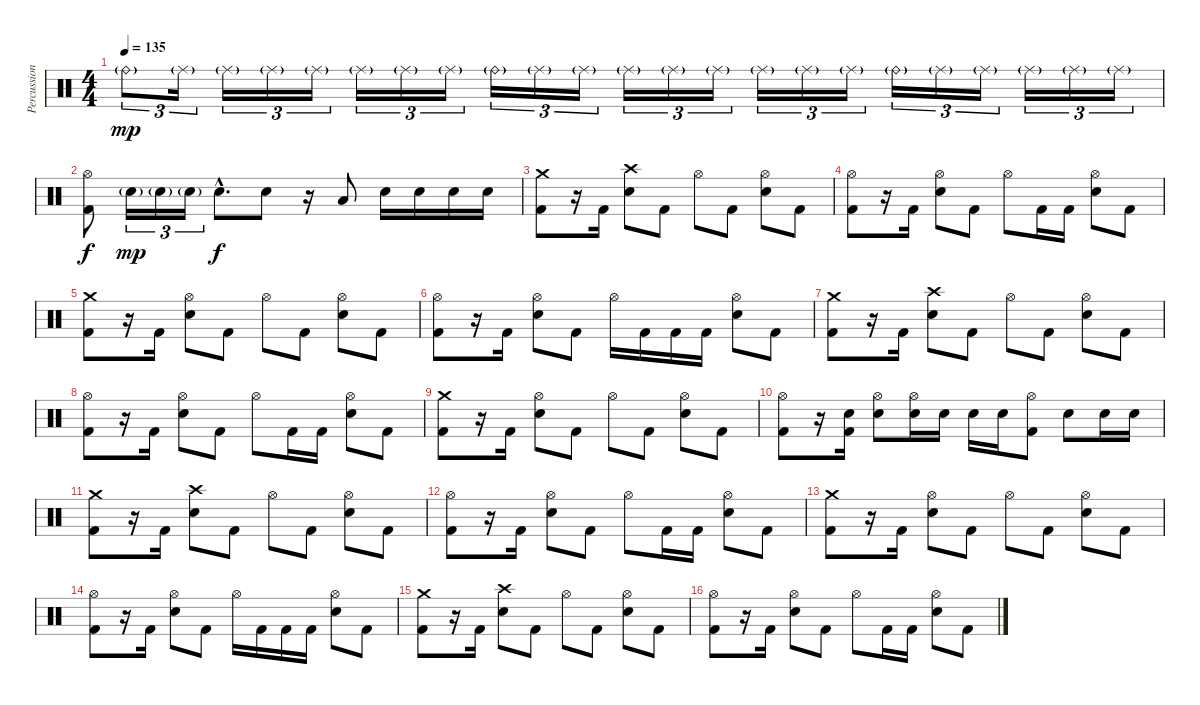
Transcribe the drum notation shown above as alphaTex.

\track ("Percussion" "Percussion") {instrument percussion}
\staff {score}
\articulation defaults
\ts (4 4)
\tempo 135
\clef neutral
\ks c "Ride (bell)"{g}.8{tu (3 2) dy mp} "Ride (middle)"{g}.16{tu (3 2)} "Ride (middle)"{g}.16{tu (3 2)} "Ride (middle)"{g}.16{tu (3 2)} "Ride (middle)"{g}.16{tu (3 2)} "Ride (middle)"{g}.16{tu (3 2)} "Ride (middle)"{g}.16{tu (3 2)} "Ride (middle)"{g}.16{tu (3 2)} "Ride (bell)"{g}.16{tu (3 2)} "Ride (middle)"{g}.16{tu (3 2)} "Ride (middle)"{g}.16{tu (3 2)} "Ride (middle)"{g}.16{tu (3 2)} "Ride (middle)"{g}.16{tu (3 2)} "Ride (middle)"{g}.16{tu (3 2)} "Ride (middle)"{g}.16{tu (3 2)} "Ride (middle)"{g}.16{tu (3 2)} "Ride (middle)"{g}.16{tu (3 2)} "Ride (bell)"{g}.16{tu (3 2)} "Ride (middle)"{g}.16{tu (3 2)} "Ride (middle)"{g}.16{tu (3 2)} "Ride (middle)"{g}.16{tu (3 2)} "Ride (middle)"{g}.16{tu (3 2)} "Ride (middle)"{g}.16{tu (3 2)}
|
("Hi-Hat (open)" "Kick (hit) 2").8{dy f} "Electric Snare (hit)"{g}.16{tu (3 2) dy mp} "Electric Snare (hit)"{g}.16{tu (3 2)} "Electric Snare (hit)"{g}.16{tu (3 2)} "Electric Snare (hit)"{hac}.8{d dy f} "Electric Snare (hit)".8 r.16 "Low Floor Tom (hit)".8 "Electric Snare (hit)".16 "Electric Snare (hit)".16 "Electric Snare (hit)".16 "Electric Snare (hit)".16 |
("Crash medium (hit)" "Kick (hit) 2").8 r.16 "Kick (hit) 2".16 ("Crash high (hit)" "Electric Snare (hit)").8 "Kick (hit) 2".8 "Hi-Hat (open)".8 "Kick (hit) 2".8 ("Hi-Hat (open)" "Electric Snare (hit)").8 "Kick (hit) 2".8 |
("Hi-Hat (open)" "Kick (hit) 2").8 r.16 "Kick (hit) 2".16 ("Hi-Hat (open)" "Electric Snare (hit)").8 "Kick (hit) 2".8 "Hi-Hat (open)".8 "Kick (hit) 2".16 "Kick (hit) 2".16 ("Hi-Hat (open)" "Electric Snare (hit)").8 "Kick (hit) 2".8 |
("Crash medium (hit)" "Kick (hit) 2").8 r.16 "Kick (hit) 2".16 ("Hi-Hat (open)" "Electric Snare (hit)").8 "Kick (hit) 2".8 "Hi-Hat (open)".8 "Kick (hit) 2".8 ("Hi-Hat (open)" "Electric Snare (hit)").8 "Kick (hit) 2".8 |
("Hi-Hat (open)" "Kick (hit) 2").8 r.16 "Kick (hit) 2".16 ("Hi-Hat (open)" "Electric Snare (hit)").8 "Kick (hit) 2".8 "Hi-Hat (open)".16 "Kick (hit) 2".16 "Kick (hit) 2".16 "Kick (hit) 2".16 ("Hi-Hat (open)" "Electric Snare (hit)").8 "Kick (hit) 2".8 |
("Crash medium (hit)" "Kick (hit) 2").8 r.16 "Kick (hit) 2".16 ("Crash high (hit)" "Electric Snare (hit)").8 "Kick (hit) 2".8 "Hi-Hat (open)".8 "Kick (hit) 2".8 ("Hi-Hat (open)" "Electric Snare (hit)").8 "Kick (hit) 2".8 |
("Hi-Hat (open)" "Kick (hit) 2").8 r.16 "Kick (hit) 2".16 ("Hi-Hat (open)" "Electric Snare (hit)").8 "Kick (hit) 2".8 "Hi-Hat (open)".8 "Kick (hit) 2".16 "Kick (hit) 2".16 ("Hi-Hat (open)" "Electric Snare (hit)").8 "Kick (hit) 2".8 |
("Crash medium (hit)" "Kick (hit) 2").8 r.16 "Kick (hit) 2".16 ("Hi-Hat (open)" "Electric Snare (hit)").8 "Kick (hit) 2".8 "Hi-Hat (open)".8 "Kick (hit) 2".8 ("Hi-Hat (open)" "Electric Snare (hit)").8 "Kick (hit) 2".8 |
("Hi-Hat (open)" "Kick (hit) 2").8 r.16 ("Electric Snare (hit)" "Kick (hit) 2").16 ("Hi-Hat (open)" "Electric Snare (hit)").8 ("Hi-Hat (open)" "Electric Snare (hit)").16 "Electric Snare (hit)".16 "Electric Snare (hit)".16 "Electric Snare (hit)".16 ("Hi-Hat (open)" "Kick (hit) 2").8 "Electric Snare (hit)".8 "Electric Snare (hit)".16 "Electric Snare (hit)".16 |
("Crash medium (hit)" "Kick (hit) 2").8 r.16 "Kick (hit) 2".16 ("Crash high (hit)" "Electric Snare (hit)").8 "Kick (hit) 2".8 "Hi-Hat (open)".8 "Kick (hit) 2".8 ("Hi-Hat (open)" "Electric Snare (hit)").8 "Kick (hit) 2".8 |
("Hi-Hat (open)" "Kick (hit) 2").8 r.16 "Kick (hit) 2".16 ("Hi-Hat (open)" "Electric Snare (hit)").8 "Kick (hit) 2".8 "Hi-Hat (open)".8 "Kick (hit) 2".16 "Kick (hit) 2".16 ("Hi-Hat (open)" "Electric Snare (hit)").8 "Kick (hit) 2".8 |
("Crash medium (hit)" "Kick (hit) 2").8 r.16 "Kick (hit) 2".16 ("Hi-Hat (open)" "Electric Snare (hit)").8 "Kick (hit) 2".8 "Hi-Hat (open)".8 "Kick (hit) 2".8 ("Hi-Hat (open)" "Electric Snare (hit)").8 "Kick (hit) 2".8 |
("Hi-Hat (open)" "Kick (hit) 2").8 r.16 "Kick (hit) 2".16 ("Hi-Hat (open)" "Electric Snare (hit)").8 "Kick (hit) 2".8 "Hi-Hat (open)".16 "Kick (hit) 2".16 "Kick (hit) 2".16 "Kick (hit) 2".16 ("Hi-Hat (open)" "Electric Snare (hit)").8 "Kick (hit) 2".8 |
("Crash medium (hit)" "Kick (hit) 2").8 r.16 "Kick (hit) 2".16 ("Crash high (hit)" "Electric Snare (hit)").8 "Kick (hit) 2".8 "Hi-Hat (open)".8 "Kick (hit) 2".8 ("Hi-Hat (open)" "Electric Snare (hit)").8 "Kick (hit) 2".8 |
("Hi-Hat (open)" "Kick (hit) 2").8 r.16 "Kick (hit) 2".16 ("Hi-Hat (open)" "Electric Snare (hit)").8 "Kick (hit) 2".8 "Hi-Hat (open)".8 "Kick (hit) 2".16 "Kick (hit) 2".16 ("Hi-Hat (open)" "Electric Snare (hit)").8 "Kick (hit) 2".8
